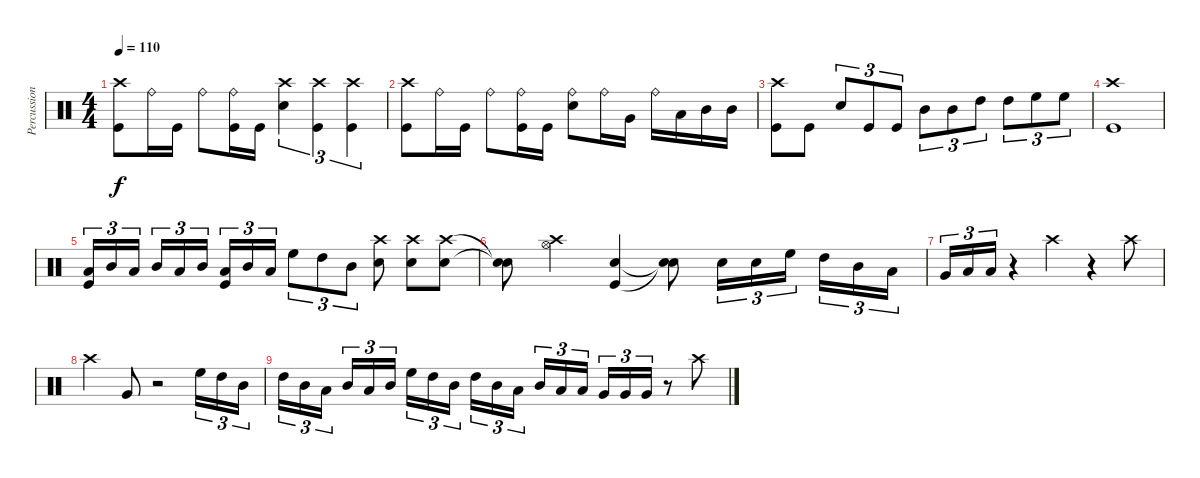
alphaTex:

\track ("Percussion" "Percussion") {instrument percussion}
\staff {score}
\articulation defaults
\ts (4 4)
\tempo 110
\clef neutral
\ks c
("Crash high (hit)" "Kick (hit)").8{dy f} "Ride (bell)".16 "Kick (hit)".16 "Ride (bell)".8 ("Ride (bell)" "Kick (hit)").16 "Kick (hit)".16 ("Crash high (hit)" "Snare (hit) 2").4{tu (3 2)} ("Crash high (hit)" "Kick (hit)").4{tu (3 2)} ("Crash high (hit)" "Kick (hit)").4{tu (3 2)} |
("Crash high (hit)" "Kick (hit)").8 "Ride (bell)".16 "Kick (hit)".16 "Ride (bell)".8 ("Ride (bell)" "Kick (hit)").16 "Kick (hit)".16 ("Snare (hit) 2" "Ride (bell)").8 "Ride (bell)".16 "Very Low Tom (hit)".16 "Ride (bell)".16 "Low Tom (hit)".16 "Mid Tom (hit)".16 "Mid Tom (hit)".16 |
("Kick (hit)" "Crash high (hit)").8 "Kick (hit)".8 "Snare (hit) 2".8{tu (3 2)} "Kick (hit)".8{tu (3 2)} "Kick (hit)".8{tu (3 2)} "Mid Tom (hit)".8{tu (3 2)} "Mid Tom (hit)".8{tu (3 2)} "High Tom (hit)".8{tu (3 2)} "High Tom (hit)".8{tu (3 2)} "High Floor Tom (hit)".8{tu (3 2)} "High Floor Tom (hit)".8{tu (3 2)} |
("Crash high (hit)" "Kick (hit)").1 |
("Kick (hit)" "Low Tom (hit)").16{tu (3 2)} "Mid Tom (hit)".16{tu (3 2)} "Low Tom (hit)".16{tu (3 2)} "Mid Tom (hit)".16{tu (3 2)} "Low Tom (hit)".16{tu (3 2)} "Mid Tom (hit)".16{tu (3 2)} ("Kick (hit)" "Low Tom (hit)").16{tu (3 2)} "Mid Tom (hit)".16{tu (3 2)} "Low Tom (hit)".16{tu (3 2)} "High Floor Tom (hit)".8{tu (3 2)} "High Tom (hit)".8{tu (3 2)} "Mid Tom (hit)".8{tu (3 2)} ("Crash high (hit)" "Snare (hit) 2").8 ("Crash high (hit)" "Snare (hit) 2").8 ("Crash high (hit)" "Snare (hit) 2").8 |
("Snare (hit)"{t} "Snare (hit)"{t}).8 ("Hi-Hat (open)" "Crash high (hit)").4 ("Kick (hit)" "Snare (hit) 2").4 ("Snare (hit)"{t} "Snare (hit)"{t}).8 "Electric Snare (hit)".16{tu (3 2)} "Electric Snare (hit)".16{tu (3 2)} "High Floor Tom (hit)".16{tu (3 2)} "High Tom (hit)".16{tu (3 2)} "Mid Tom (hit)".16{tu (3 2)} "Low Tom (hit)".16{tu (3 2)} |
"Very Low Tom (hit)".16{tu (3 2)} "Low Floor Tom (hit)".16{tu (3 2)} "Low Floor Tom (hit)".16{tu (3 2)} r.4 "Crash high (hit)".4 r.4 "Crash high (hit)".8 |
"Crash high (hit)".4 "Very Low Tom (hit)".8 r.2 "High Floor Tom (hit)".16{tu (3 2)} "High Tom (hit)".16{tu (3 2)} "Mid Tom (hit)".16{tu (3 2)} |
"High Tom (hit)".16{tu (3 2)} "Mid Tom (hit)".16{tu (3 2)} "Low Tom (hit)".16{tu (3 2)} "Mid Tom (hit)".16{tu (3 2)} "Low Tom (hit)".16{tu (3 2)} "Mid Tom (hit)".16{tu (3 2)} "High Floor Tom (hit)".16{tu (3 2)} "High Tom (hit)".16{tu (3 2)} "Mid Tom (hit)".16{tu (3 2)} "High Tom (hit)".16{tu (3 2)} "Mid Tom (hit)".16{tu (3 2)} "Low Tom (hit)".16{tu (3 2)} "Mid Tom (hit)".16{tu (3 2)} "Low Tom (hit)".16{tu (3 2)} "Low Tom (hit)".16{tu (3 2)} "Very Low Tom (hit)".16{tu (3 2)} "Very Low Tom (hit)".16{tu (3 2)} "Very Low Tom (hit)".16{tu (3 2)} r.8 "Crash high (hit)".8
